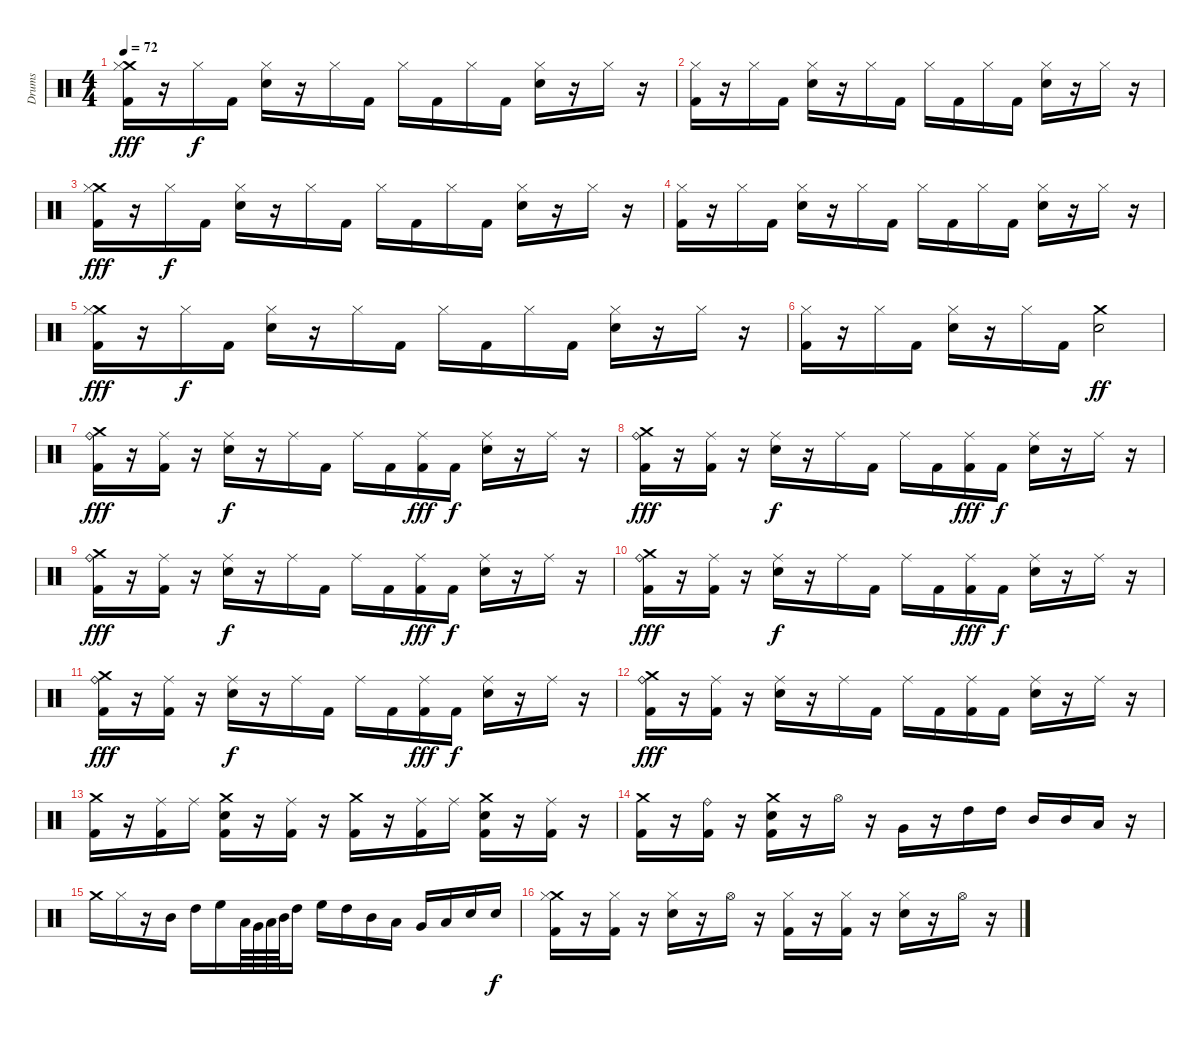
\track ("Drums" "Drums") {instrument percussion}
\staff {score}
\articulation defaults
\ts (4 4)
\tempo 72
\clef neutral
\ks c
("Crash medium (hit)" "Hi-Hat (closed)" "Kick (hit) 2").16{dy fff} r.16 "Hi-Hat (closed)".16{dy f} "Kick (hit) 2".16 ("Hi-Hat (closed)" "Snare (hit) 2").16 r.16 "Hi-Hat (closed)".16 "Kick (hit) 2".16 "Hi-Hat (closed)".16 "Kick (hit) 2".16 "Hi-Hat (closed)".16 "Kick (hit) 2".16 ("Hi-Hat (closed)" "Snare (hit) 2").16 r.16 "Hi-Hat (closed)".16 r.16 |
("Hi-Hat (closed)" "Kick (hit) 2").16 r.16 "Hi-Hat (closed)".16 "Kick (hit) 2".16 ("Hi-Hat (closed)" "Snare (hit) 2").16 r.16 "Hi-Hat (closed)".16 "Kick (hit) 2".16 "Hi-Hat (closed)".16 "Kick (hit) 2".16 "Hi-Hat (closed)".16 "Kick (hit) 2".16 ("Hi-Hat (closed)" "Snare (hit) 2").16 r.16 "Hi-Hat (closed)".16 r.16 |
("Crash medium (hit)" "Hi-Hat (closed)" "Kick (hit) 2").16{dy fff} r.16 "Hi-Hat (closed)".16{dy f} "Kick (hit) 2".16 ("Hi-Hat (closed)" "Snare (hit) 2").16 r.16 "Hi-Hat (closed)".16 "Kick (hit) 2".16 "Hi-Hat (closed)".16 "Kick (hit) 2".16 "Hi-Hat (closed)".16 "Kick (hit) 2".16 ("Hi-Hat (closed)" "Snare (hit) 2").16 r.16 "Hi-Hat (closed)".16 r.16 |
("Hi-Hat (closed)" "Kick (hit) 2").16 r.16 "Hi-Hat (closed)".16 "Kick (hit) 2".16 ("Hi-Hat (closed)" "Snare (hit) 2").16 r.16 "Hi-Hat (closed)".16 "Kick (hit) 2".16 "Hi-Hat (closed)".16 "Kick (hit) 2".16 "Hi-Hat (closed)".16 "Kick (hit) 2".16 ("Hi-Hat (closed)" "Snare (hit) 2").16 r.16 "Hi-Hat (closed)".16 r.16 |
("Crash medium (hit)" "Hi-Hat (closed)" "Kick (hit) 2").16{dy fff} r.16 "Hi-Hat (closed)".16{dy f} "Kick (hit) 2".16 ("Hi-Hat (closed)" "Snare (hit) 2").16 r.16 "Hi-Hat (closed)".16 "Kick (hit) 2".16 "Hi-Hat (closed)".16 "Kick (hit) 2".16 "Hi-Hat (closed)".16 "Kick (hit) 2".16 ("Hi-Hat (closed)" "Snare (hit) 2").16 r.16 "Hi-Hat (closed)".16 r.16 |
("Hi-Hat (closed)" "Kick (hit) 2").16 r.16 "Hi-Hat (closed)".16 "Kick (hit) 2".16 ("Hi-Hat (closed)" "Snare (hit) 2").16 r.16 "Hi-Hat (closed)".16 "Kick (hit) 2".16 ("Snare (hit) 2" "Crash medium (hit)").2{dy ff} |
("Crash medium (hit)" "Ride (bell)" "Kick (hit) 2").16{dy fff} r.16 ("Ride (middle)" "Kick (hit) 2").16 r.16 ("Ride (middle)" "Snare (hit) 2").16{dy f} r.16 "Ride (middle)".16 "Kick (hit) 2".16 "Ride (middle)".16 "Kick (hit) 2".16 ("Ride (middle)" "Kick (hit) 2").16{dy fff} "Kick (hit) 2".16{dy f} ("Ride (middle)" "Snare (hit) 2").16 r.16 "Ride (middle)".16 r.16 |
("Crash medium (hit)" "Ride (bell)" "Kick (hit) 2").16{dy fff} r.16 ("Ride (middle)" "Kick (hit) 2").16 r.16 ("Ride (middle)" "Snare (hit) 2").16{dy f} r.16 "Ride (middle)".16 "Kick (hit) 2".16 "Ride (middle)".16 "Kick (hit) 2".16 ("Ride (middle)" "Kick (hit) 2").16{dy fff} "Kick (hit) 2".16{dy f} ("Ride (middle)" "Snare (hit) 2").16 r.16 "Ride (middle)".16 r.16 |
("Crash medium (hit)" "Ride (bell)" "Kick (hit) 2").16{dy fff} r.16 ("Ride (middle)" "Kick (hit) 2").16 r.16 ("Ride (middle)" "Snare (hit) 2").16{dy f} r.16 "Ride (middle)".16 "Kick (hit) 2".16 "Ride (middle)".16 "Kick (hit) 2".16 ("Ride (middle)" "Kick (hit) 2").16{dy fff} "Kick (hit) 2".16{dy f} ("Ride (middle)" "Snare (hit) 2").16 r.16 "Ride (middle)".16 r.16 |
("Crash medium (hit)" "Ride (bell)" "Kick (hit) 2").16{dy fff} r.16 ("Ride (middle)" "Kick (hit) 2").16 r.16 ("Ride (middle)" "Snare (hit) 2").16{dy f} r.16 "Ride (middle)".16 "Kick (hit) 2".16 "Ride (middle)".16 "Kick (hit) 2".16 ("Ride (middle)" "Kick (hit) 2").16{dy fff} "Kick (hit) 2".16{dy f} ("Ride (middle)" "Snare (hit) 2").16 r.16 "Ride (middle)".16 r.16 |
("Crash medium (hit)" "Ride (bell)" "Kick (hit) 2").16{dy fff} r.16 ("Ride (middle)" "Kick (hit) 2").16 r.16 ("Ride (middle)" "Snare (hit) 2").16{dy f} r.16 "Ride (middle)".16 "Kick (hit) 2".16 "Ride (middle)".16 "Kick (hit) 2".16 ("Ride (middle)" "Kick (hit) 2").16{dy fff} "Kick (hit) 2".16{dy f} ("Ride (middle)" "Snare (hit) 2").16 r.16 "Ride (middle)".16 r.16 |
("Crash medium (hit)" "Ride (bell)" "Kick (hit) 2").16{dy fff} r.16 ("Ride (middle)" "Kick (hit) 2").16 r.16 ("Ride (middle)" "Snare (hit) 2").16 r.16 "Ride (middle)".16 "Kick (hit) 2".16 "Ride (middle)".16 "Kick (hit) 2".16 ("Ride (middle)" "Kick (hit) 2").16 "Kick (hit) 2".16 ("Ride (middle)" "Snare (hit) 2").16 r.16 "Ride (middle)".16 r.16 |
("Crash medium (hit)" "Kick (hit) 2").16 r.16 ("Ride (middle)" "Kick (hit) 2").16 "Ride (middle)".16 ("Crash medium (hit)" "Snare (hit) 2" "Kick (hit) 2").16 r.16 ("Ride (middle)" "Kick (hit) 2").16 r.16 ("Crash medium (hit)" "Kick (hit) 2").16 r.16 ("Ride (middle)" "Kick (hit) 2").16 "Ride (middle)".16 ("Crash medium (hit)" "Snare (hit) 2" "Kick (hit) 2").16 r.16 ("Ride (middle)" "Kick (hit) 2").16 r.16 |
("Crash medium (hit)" "Kick (hit) 2").16 r.16 ("Ride (bell)" "Kick (hit) 2").16 r.16 ("Crash medium (hit)" "Snare (hit) 2" "Kick (hit) 2").16 r.16 "Hi-Hat (open)".16 r.16 "Very Low Tom (hit)".16 r.16 "High Tom (hit)".16 "High Tom (hit)".16 "Mid Tom (hit)".16 "Mid Tom (hit)".16 "Low Tom (hit)".16 r.16 |
"Crash medium (hit)".16 "Hi-Hat (closed)".16 r.16 "Mid Tom (hit)".16 "High Tom (hit)".16 "High Floor Tom (hit)".16 "Low Floor Tom (hit)".64 "Very Low Tom (hit)".64 "Low Tom (hit)".64 "Mid Tom (hit)".64 "High Tom (hit)".16 "High Floor Tom (hit)".16 "High Tom (hit)".16 "Mid Tom (hit)".16 "Low Tom (hit)".16 "Very Low Tom (hit)".16 "Low Floor Tom (hit)".16 "Snare (hit) 2".16 "Snare (hit) 2".16{dy f} |
("Crash medium (hit)" "Hi-Hat (closed)" "Kick (hit) 2").16 r.16 ("Hi-Hat (closed)" "Kick (hit) 2").16 r.16 ("Hi-Hat (closed)" "Snare (hit) 2").16 r.16 "Hi-Hat (open)".16 r.16 ("Hi-Hat (closed)" "Kick (hit) 2").16 r.16 ("Hi-Hat (closed)" "Kick (hit) 2").16 r.16 ("Hi-Hat (closed)" "Snare (hit) 2").16 r.16 "Hi-Hat (open)".16 r.16
